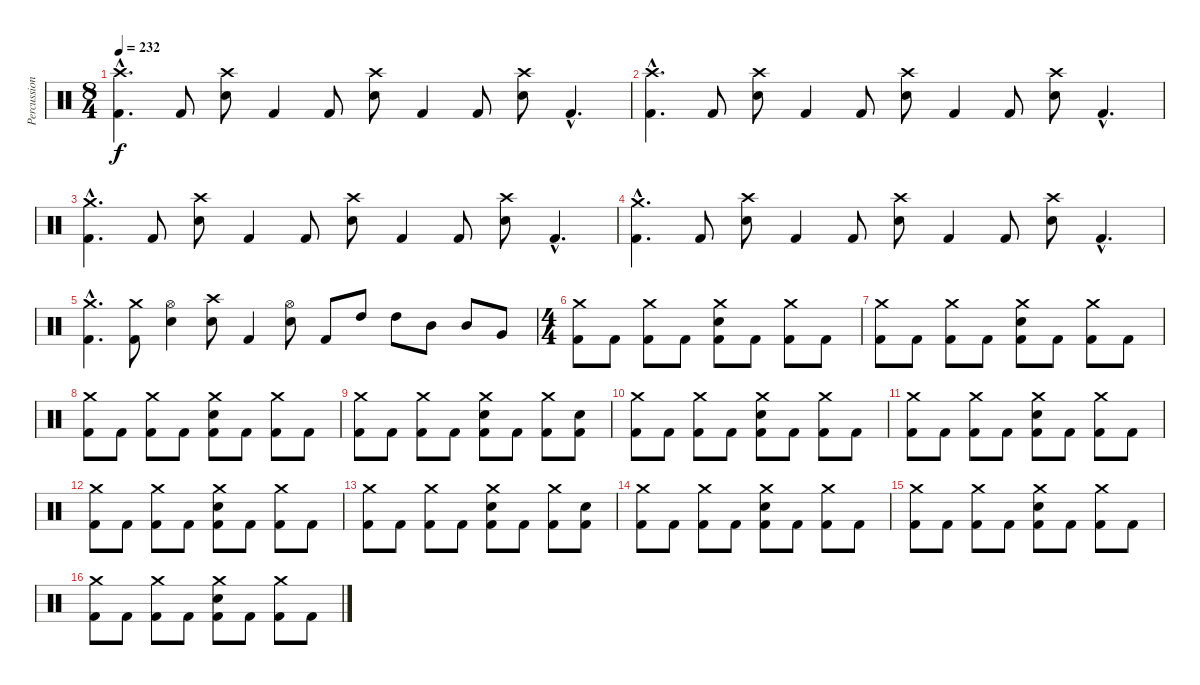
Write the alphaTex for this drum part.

\track ("Percussions" "Percussion") {instrument percussion}
\staff {score}
\articulation defaults
\ts (8 4)
\tempo 232
\clef neutral
\ks c
("Crash high (hit)"{hac} "Kick (hit) 2"{hac}).4{d dy f} "Kick (hit) 2".8 ("Crash high (hit)" "Electric Snare (hit)").8 "Kick (hit) 2".4 "Kick (hit) 2".8 ("Crash high (hit)" "Electric Snare (hit)").8 "Kick (hit) 2".4 "Kick (hit) 2".8 ("Crash high (hit)" "Electric Snare (hit)").8 "Kick (hit) 2"{hac}.4{d} |
("Crash high (hit)"{hac} "Kick (hit) 2"{hac}).4{d} "Kick (hit) 2".8 ("Crash high (hit)" "Electric Snare (hit)").8 "Kick (hit) 2".4 "Kick (hit) 2".8 ("Crash high (hit)" "Electric Snare (hit)").8 "Kick (hit) 2".4 "Kick (hit) 2".8 ("Crash high (hit)" "Electric Snare (hit)").8 "Kick (hit) 2"{hac}.4{d} |
("Crash medium (hit)"{hac} "Kick (hit) 2"{hac}).4{d} "Kick (hit) 2".8 ("Crash high (hit)" "Electric Snare (hit)").8 "Kick (hit) 2".4 "Kick (hit) 2".8 ("Crash high (hit)" "Electric Snare (hit)").8 "Kick (hit) 2".4 "Kick (hit) 2".8 ("Crash high (hit)" "Electric Snare (hit)").8 "Kick (hit) 2"{hac}.4{d} |
("Crash medium (hit)"{hac} "Kick (hit) 2"{hac}).4{d} "Kick (hit) 2".8 ("Crash high (hit)" "Electric Snare (hit)").8 "Kick (hit) 2".4 "Kick (hit) 2".8 ("Crash high (hit)" "Electric Snare (hit)").8 "Kick (hit) 2".4 "Kick (hit) 2".8 ("Crash high (hit)" "Electric Snare (hit)").8 "Kick (hit) 2"{hac}.4{d} |
("Crash medium (hit)"{hac} "Kick (hit) 2"{hac}).4{d} ("Crash medium (hit)" "Kick (hit) 2").8 ("Hi-Hat (open)" "Electric Snare (hit)").4 ("Crash high (hit)" "Electric Snare (hit)").8 "Kick (hit) 2".4 ("Hi-Hat (open)" "Electric Snare (hit)").8 "Kick (hit) 2".8 "High Tom (hit)".8 "High Tom (hit)".8 "Mid Tom (hit)".8 "Mid Tom (hit)".8 "Very Low Tom (hit)".8 |
\ts (4 4)
("Crash medium (hit)" "Kick (hit) 2").8 "Kick (hit) 2".8 ("Crash medium (hit)" "Kick (hit) 2").8 "Kick (hit) 2".8 ("Crash medium (hit)" "Electric Snare (hit)" "Kick (hit) 2").8 "Kick (hit) 2".8 ("Crash medium (hit)" "Kick (hit) 2").8 "Kick (hit) 2".8 |
("Crash medium (hit)" "Kick (hit) 2").8 "Kick (hit) 2".8 ("Crash medium (hit)" "Kick (hit) 2").8 "Kick (hit) 2".8 ("Crash medium (hit)" "Electric Snare (hit)" "Kick (hit) 2").8 "Kick (hit) 2".8 ("Crash medium (hit)" "Kick (hit) 2").8 "Kick (hit) 2".8 |
("Crash medium (hit)" "Kick (hit) 2").8 "Kick (hit) 2".8 ("Crash medium (hit)" "Kick (hit) 2").8 "Kick (hit) 2".8 ("Crash medium (hit)" "Electric Snare (hit)" "Kick (hit) 2").8 "Kick (hit) 2".8 ("Crash medium (hit)" "Kick (hit) 2").8 "Kick (hit) 2".8 |
("Crash medium (hit)" "Kick (hit) 2").8 "Kick (hit) 2".8 ("Crash medium (hit)" "Kick (hit) 2").8 "Kick (hit) 2".8 ("Crash medium (hit)" "Electric Snare (hit)" "Kick (hit) 2").8 "Kick (hit) 2".8 ("Crash medium (hit)" "Kick (hit) 2").8 ("Electric Snare (hit)" "Kick (hit) 2").8 |
("Crash medium (hit)" "Kick (hit) 2").8 "Kick (hit) 2".8 ("Crash medium (hit)" "Kick (hit) 2").8 "Kick (hit) 2".8 ("Crash medium (hit)" "Electric Snare (hit)" "Kick (hit) 2").8 "Kick (hit) 2".8 ("Crash medium (hit)" "Kick (hit) 2").8 "Kick (hit) 2".8 |
("Crash medium (hit)" "Kick (hit) 2").8 "Kick (hit) 2".8 ("Crash medium (hit)" "Kick (hit) 2").8 "Kick (hit) 2".8 ("Crash medium (hit)" "Electric Snare (hit)" "Kick (hit) 2").8 "Kick (hit) 2".8 ("Crash medium (hit)" "Kick (hit) 2").8 "Kick (hit) 2".8 |
("Crash medium (hit)" "Kick (hit) 2").8 "Kick (hit) 2".8 ("Crash medium (hit)" "Kick (hit) 2").8 "Kick (hit) 2".8 ("Crash medium (hit)" "Electric Snare (hit)" "Kick (hit) 2").8 "Kick (hit) 2".8 ("Crash medium (hit)" "Kick (hit) 2").8 "Kick (hit) 2".8 |
("Crash medium (hit)" "Kick (hit) 2").8 "Kick (hit) 2".8 ("Crash medium (hit)" "Kick (hit) 2").8 "Kick (hit) 2".8 ("Crash medium (hit)" "Electric Snare (hit)" "Kick (hit) 2").8 "Kick (hit) 2".8 ("Crash medium (hit)" "Kick (hit) 2").8 ("Electric Snare (hit)" "Kick (hit) 2").8 |
("Crash medium (hit)" "Kick (hit) 2").8 "Kick (hit) 2".8 ("Crash medium (hit)" "Kick (hit) 2").8 "Kick (hit) 2".8 ("Crash medium (hit)" "Electric Snare (hit)" "Kick (hit) 2").8 "Kick (hit) 2".8 ("Crash medium (hit)" "Kick (hit) 2").8 "Kick (hit) 2".8 |
("Crash medium (hit)" "Kick (hit) 2").8 "Kick (hit) 2".8 ("Crash medium (hit)" "Kick (hit) 2").8 "Kick (hit) 2".8 ("Crash medium (hit)" "Electric Snare (hit)" "Kick (hit) 2").8 "Kick (hit) 2".8 ("Crash medium (hit)" "Kick (hit) 2").8 "Kick (hit) 2".8 |
("Crash medium (hit)" "Kick (hit) 2").8 "Kick (hit) 2".8 ("Crash medium (hit)" "Kick (hit) 2").8 "Kick (hit) 2".8 ("Crash medium (hit)" "Electric Snare (hit)" "Kick (hit) 2").8 "Kick (hit) 2".8 ("Crash medium (hit)" "Kick (hit) 2").8 "Kick (hit) 2".8
